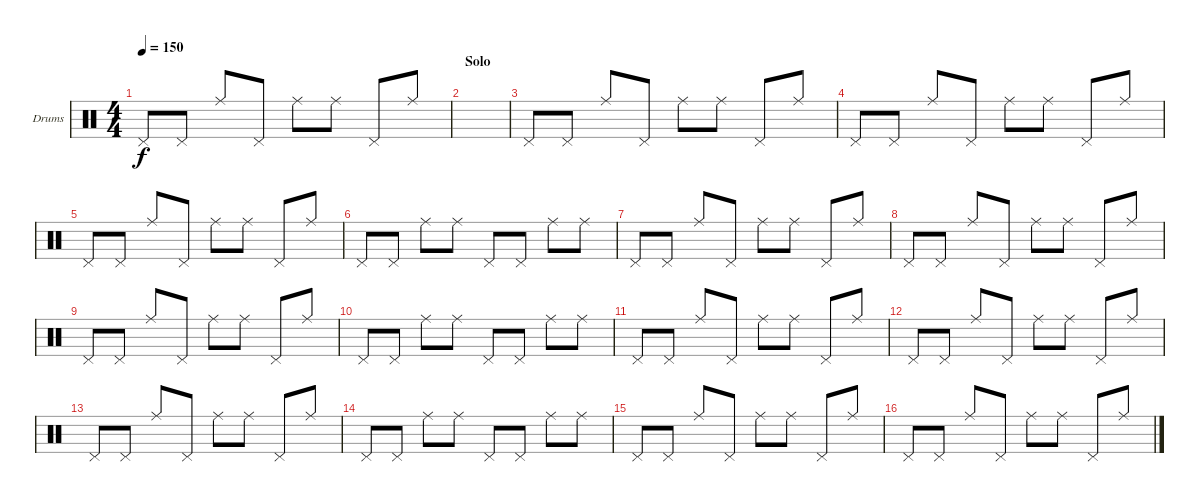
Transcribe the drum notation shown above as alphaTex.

\defaultSystemsLayout 4
\bracketExtendMode groupsimilarinstruments
\firstSystemTrackNameOrientation horizontal
\otherSystemsTrackNameOrientation horizontal
\track ("Nazar" "Drums") {instrument percussion}
\staff {score}
\articulation defaults
\ts (4 4)
\tempo 150
\clef neutral
\ks c "Pedal Hi-Hat (hit)".8{dy f} "Pedal Hi-Hat (hit)".8 "Ride (middle)".8 "Pedal Hi-Hat (hit)".8 "Ride (middle)".8 "Ride (middle)".8 "Pedal Hi-Hat (hit)".8 "Ride (middle)".8
|
\section ("" "Solo")
|
"Pedal Hi-Hat (hit)".8 "Pedal Hi-Hat (hit)".8 "Ride (middle)".8 "Pedal Hi-Hat (hit)".8 "Ride (middle)".8 "Ride (middle)".8 "Pedal Hi-Hat (hit)".8 "Ride (middle)".8 |
"Pedal Hi-Hat (hit)".8 "Pedal Hi-Hat (hit)".8 "Ride (middle)".8 "Pedal Hi-Hat (hit)".8 "Ride (middle)".8 "Ride (middle)".8 "Pedal Hi-Hat (hit)".8 "Ride (middle)".8 |
"Pedal Hi-Hat (hit)".8 "Pedal Hi-Hat (hit)".8 "Ride (middle)".8 "Pedal Hi-Hat (hit)".8 "Ride (middle)".8 "Ride (middle)".8 "Pedal Hi-Hat (hit)".8 "Ride (middle)".8 |
"Pedal Hi-Hat (hit)".8 "Pedal Hi-Hat (hit)".8 "Ride (middle)".8 "Ride (middle)".8 "Pedal Hi-Hat (hit)".8 "Pedal Hi-Hat (hit)".8 "Ride (middle)".8 "Ride (middle)".8 |
"Pedal Hi-Hat (hit)".8 "Pedal Hi-Hat (hit)".8 "Ride (middle)".8 "Pedal Hi-Hat (hit)".8 "Ride (middle)".8 "Ride (middle)".8 "Pedal Hi-Hat (hit)".8 "Ride (middle)".8 |
"Pedal Hi-Hat (hit)".8 "Pedal Hi-Hat (hit)".8 "Ride (middle)".8 "Pedal Hi-Hat (hit)".8 "Ride (middle)".8 "Ride (middle)".8 "Pedal Hi-Hat (hit)".8 "Ride (middle)".8 |
"Pedal Hi-Hat (hit)".8 "Pedal Hi-Hat (hit)".8 "Ride (middle)".8 "Pedal Hi-Hat (hit)".8 "Ride (middle)".8 "Ride (middle)".8 "Pedal Hi-Hat (hit)".8 "Ride (middle)".8 |
"Pedal Hi-Hat (hit)".8 "Pedal Hi-Hat (hit)".8 "Ride (middle)".8 "Ride (middle)".8 "Pedal Hi-Hat (hit)".8 "Pedal Hi-Hat (hit)".8 "Ride (middle)".8 "Ride (middle)".8 |
"Pedal Hi-Hat (hit)".8 "Pedal Hi-Hat (hit)".8 "Ride (middle)".8 "Pedal Hi-Hat (hit)".8 "Ride (middle)".8 "Ride (middle)".8 "Pedal Hi-Hat (hit)".8 "Ride (middle)".8 |
"Pedal Hi-Hat (hit)".8 "Pedal Hi-Hat (hit)".8 "Ride (middle)".8 "Pedal Hi-Hat (hit)".8 "Ride (middle)".8 "Ride (middle)".8 "Pedal Hi-Hat (hit)".8 "Ride (middle)".8 |
"Pedal Hi-Hat (hit)".8 "Pedal Hi-Hat (hit)".8 "Ride (middle)".8 "Pedal Hi-Hat (hit)".8 "Ride (middle)".8 "Ride (middle)".8 "Pedal Hi-Hat (hit)".8 "Ride (middle)".8 |
"Pedal Hi-Hat (hit)".8 "Pedal Hi-Hat (hit)".8 "Ride (middle)".8 "Ride (middle)".8 "Pedal Hi-Hat (hit)".8 "Pedal Hi-Hat (hit)".8 "Ride (middle)".8 "Ride (middle)".8 |
"Pedal Hi-Hat (hit)".8 "Pedal Hi-Hat (hit)".8 "Ride (middle)".8 "Pedal Hi-Hat (hit)".8 "Ride (middle)".8 "Ride (middle)".8 "Pedal Hi-Hat (hit)".8 "Ride (middle)".8 |
"Pedal Hi-Hat (hit)".8 "Pedal Hi-Hat (hit)".8 "Ride (middle)".8 "Pedal Hi-Hat (hit)".8 "Ride (middle)".8 "Ride (middle)".8 "Pedal Hi-Hat (hit)".8 "Ride (middle)".8
